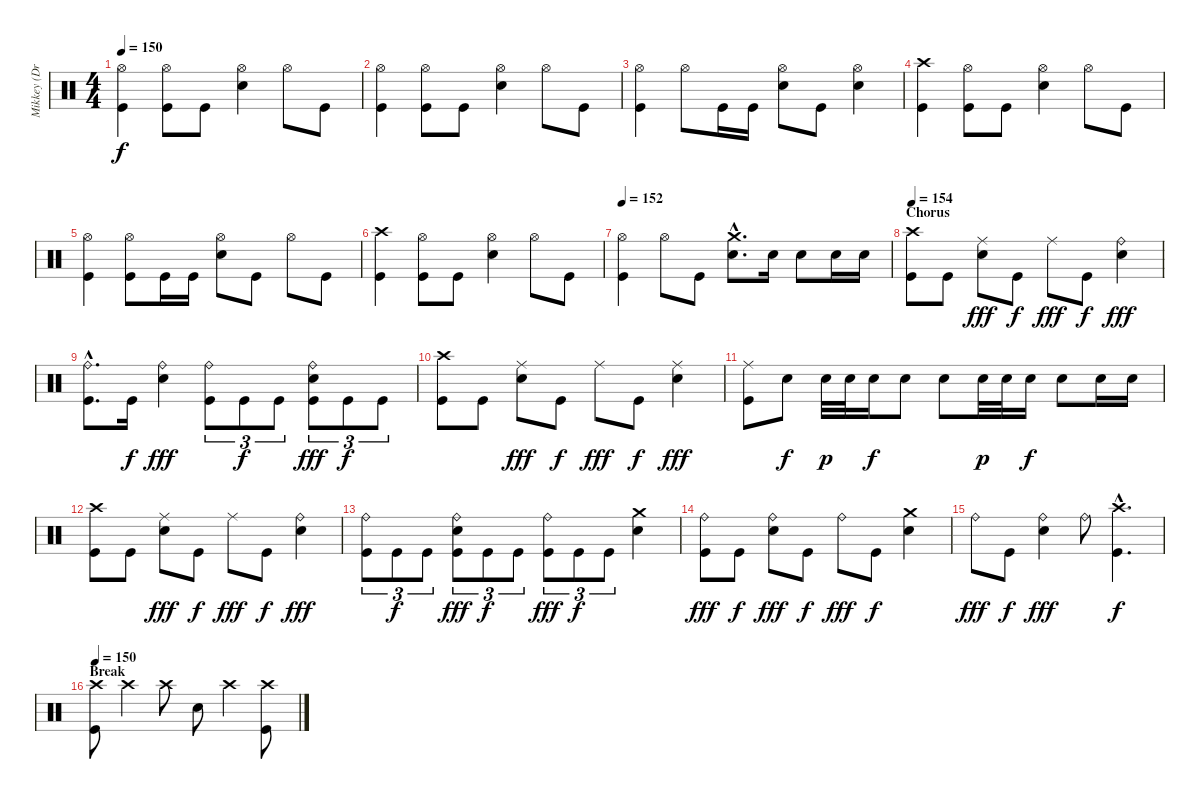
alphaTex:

\track ("Mikkey (Drums)" "Mikkey (Dr") {instrument percussion}
\staff {score}
\articulation defaults
\ts (4 4)
\tempo 150
\clef neutral
\ks c
("Hi-Hat (open)" "Kick (hit)").4{dy f} ("Hi-Hat (open)" "Kick (hit)").8 "Kick (hit)".8 ("Hi-Hat (open)" "Electric Snare (hit)").4 "Hi-Hat (open)".8 "Kick (hit)".8 |
("Hi-Hat (open)" "Kick (hit)").4 ("Hi-Hat (open)" "Kick (hit)").8 "Kick (hit)".8 ("Hi-Hat (open)" "Electric Snare (hit)").4 "Hi-Hat (open)".8 "Kick (hit)".8 |
("Hi-Hat (open)" "Kick (hit)").4 "Hi-Hat (open)".8 "Kick (hit)".16 "Kick (hit)".16 ("Hi-Hat (open)" "Electric Snare (hit)").8 "Kick (hit)".8 ("Hi-Hat (open)" "Electric Snare (hit)").4 |
("Crash high (hit)" "Kick (hit)").4 ("Hi-Hat (open)" "Kick (hit)").8 "Kick (hit)".8 ("Hi-Hat (open)" "Electric Snare (hit)").4 "Hi-Hat (open)".8 "Kick (hit)".8 |
("Hi-Hat (open)" "Kick (hit)").4 ("Hi-Hat (open)" "Kick (hit)").8 "Kick (hit)".16 "Kick (hit)".16 ("Hi-Hat (open)" "Electric Snare (hit)").8 "Kick (hit)".8 "Hi-Hat (open)".8 "Kick (hit)".8 |
("Crash high (hit)" "Kick (hit)").4 ("Hi-Hat (open)" "Kick (hit)").8 "Kick (hit)".8 ("Hi-Hat (open)" "Electric Snare (hit)").4 "Hi-Hat (open)".8 "Kick (hit)".8 |
\tempo 152
("Hi-Hat (open)" "Kick (hit)").4 "Hi-Hat (open)".8 "Kick (hit)".8 ("Crash medium (hit)"{hac} "Electric Snare (hit)"{hac}).8{d} "Electric Snare (hit)".16 "Electric Snare (hit)".8 "Electric Snare (hit)".16 "Electric Snare (hit)".16 |
\section ("" "Chorus")
\tempo 154
("Crash high (hit)" "Kick (hit)").8 "Kick (hit)".8 ("Ride (middle)" "Electric Snare (hit)").8{dy fff} "Kick (hit)".8{dy f} "Ride (middle)".8{dy fff} "Kick (hit)".8{dy f} ("Ride (bell)" "Electric Snare (hit)").4{dy fff} |
("Ride (bell)"{hac} "Kick (hit)"{hac}).8{d} "Kick (hit)".16{dy f} ("Ride (bell)" "Electric Snare (hit)").4{dy fff} ("Ride (bell)" "Kick (hit)").8{tu (3 2)} "Kick (hit)".8{tu (3 2) dy f} "Kick (hit)".8{tu (3 2)} ("Ride (bell)" "Electric Snare (hit)" "Kick (hit)").8{tu (3 2) dy fff} "Kick (hit)".8{tu (3 2) dy f} "Kick (hit)".8{tu (3 2)} |
("Crash high (hit)" "Kick (hit)").8 "Kick (hit)".8 ("Ride (middle)" "Electric Snare (hit)").8{dy fff} "Kick (hit)".8{dy f} "Ride (middle)".8{dy fff} "Kick (hit)".8{dy f} ("Ride (middle)" "Electric Snare (hit)").4{dy fff} |
("Ride (middle)" "Kick (hit)").8 "Electric Snare (hit)".8{dy f} "Electric Snare (hit)".32{dy p} "Electric Snare (hit)".32 "Electric Snare (hit)".16{dy f} "Electric Snare (hit)".8 "Electric Snare (hit)".8 "Electric Snare (hit)".32{dy p} "Electric Snare (hit)".32 "Electric Snare (hit)".16{dy f} "Electric Snare (hit)".8 "Electric Snare (hit)".16 "Electric Snare (hit)".16 |
("Crash high (hit)" "Kick (hit)").8 "Kick (hit)".8 ("Ride (middle)" "Electric Snare (hit)").8{dy fff} "Kick (hit)".8{dy f} "Ride (middle)".8{dy fff} "Kick (hit)".8{dy f} ("Ride (bell)" "Electric Snare (hit)").4{dy fff} |
("Ride (bell)" "Kick (hit)").8{tu (3 2)} "Kick (hit)".8{tu (3 2) dy f} "Kick (hit)".8{tu (3 2)} ("Ride (bell)" "Electric Snare (hit)" "Kick (hit)").8{tu (3 2) dy fff} "Kick (hit)".8{tu (3 2) dy f} "Kick (hit)".8{tu (3 2)} ("Ride (bell)" "Kick (hit)").8{tu (3 2) dy fff} "Kick (hit)".8{tu (3 2) dy f} "Kick (hit)".8{tu (3 2)} ("Crash medium (hit)" "Electric Snare (hit)").4 |
("Ride (bell)" "Kick (hit)").8{dy fff} "Kick (hit)".8{dy f} ("Ride (bell)" "Electric Snare (hit)").8{dy fff} "Kick (hit)".8{dy f} "Ride (bell)".8{dy fff} "Kick (hit)".8{dy f} ("Crash medium (hit)" "Electric Snare (hit)").4 |
"Ride (bell)".8{dy fff} "Kick (hit)".8{dy f} ("Ride (bell)" "Electric Snare (hit)").4{dy fff} "Ride (bell)".8 ("Crash high (hit)"{hac} "Kick (hit)"{hac}).4{d dy f} |
\section ("" "Break")
\tempo 150
("Crash high (hit)" "Kick (hit)").8 "Crash high (hit)".4 "Crash high (hit)".8 "Electric Snare (hit)".8 "Crash high (hit)".4 ("Crash high (hit)" "Kick (hit)").8
